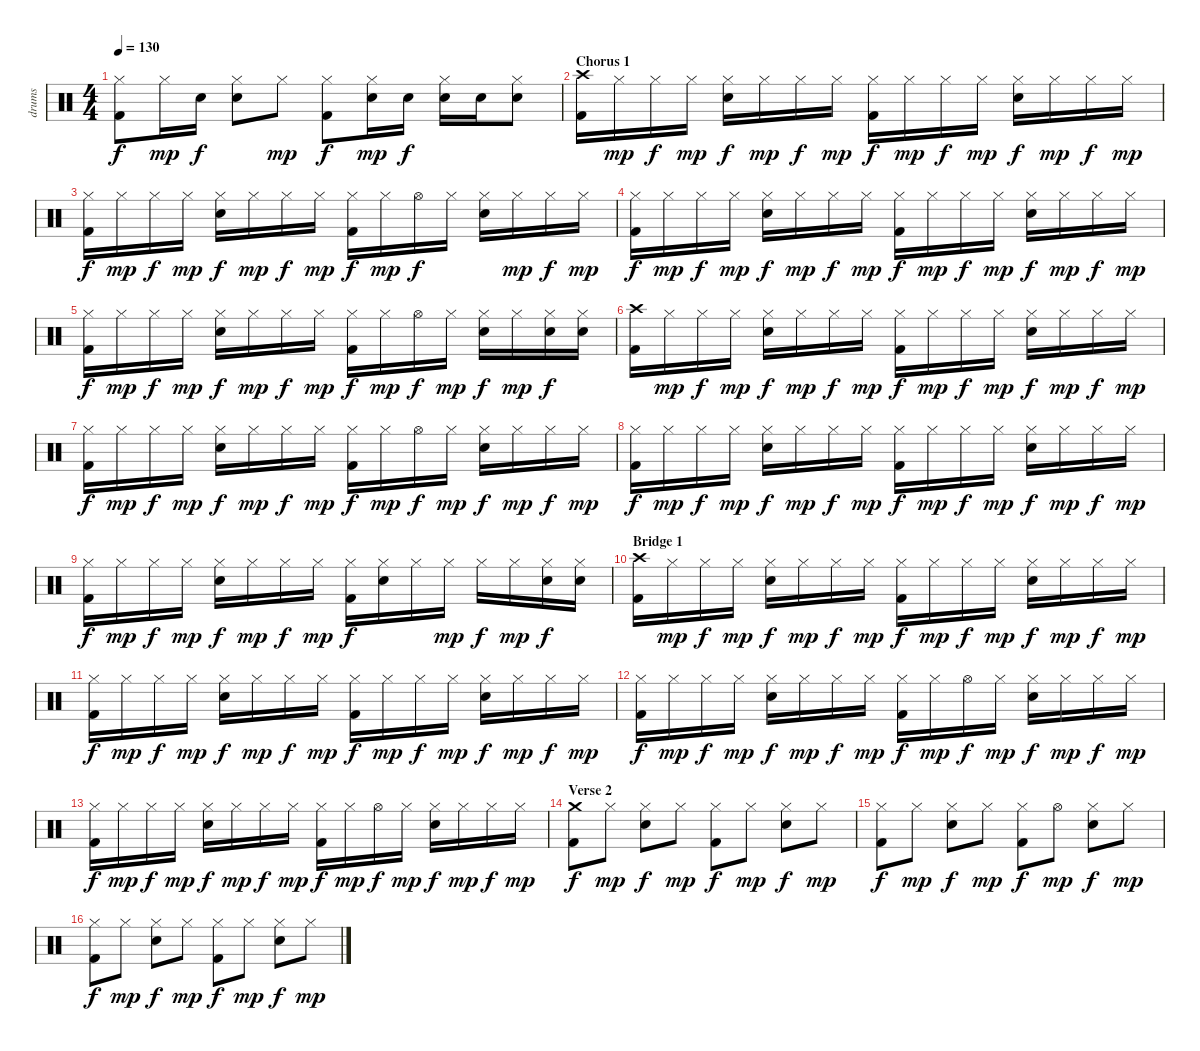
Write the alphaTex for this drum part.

\track ("drums" "drums") {instrument percussion}
\staff {score}
\articulation defaults
\ts (4 4)
\tempo 130
\clef neutral
\ks c
("Hi-Hat (closed)" "Kick (hit) 2").8{dy f} "Hi-Hat (closed)".16{dy mp} "Electric Snare (hit)".16{dy f} ("Hi-Hat (closed)" "Electric Snare (hit)").8 "Hi-Hat (closed)".8{dy mp} ("Hi-Hat (closed)" "Kick (hit) 2").8{dy f} ("Hi-Hat (closed)" "Electric Snare (hit)").16{dy mp} "Electric Snare (hit)".16{dy f} ("Hi-Hat (closed)" "Electric Snare (hit)").16 "Electric Snare (hit)".16 ("Hi-Hat (closed)" "Electric Snare (hit)").8 |
\section ("" "Chorus 1")
("Crash high (hit)" "Kick (hit) 2").16 "Hi-Hat (closed)".16{dy mp} "Hi-Hat (closed)".16{dy f} "Hi-Hat (closed)".16{dy mp} ("Hi-Hat (closed)" "Electric Snare (hit)").16{dy f} "Hi-Hat (closed)".16{dy mp} "Hi-Hat (closed)".16{dy f} "Hi-Hat (closed)".16{dy mp} ("Hi-Hat (closed)" "Kick (hit) 2").16{dy f} "Hi-Hat (closed)".16{dy mp} "Hi-Hat (closed)".16{dy f} "Hi-Hat (closed)".16{dy mp} ("Hi-Hat (closed)" "Electric Snare (hit)").16{dy f} "Hi-Hat (closed)".16{dy mp} "Hi-Hat (closed)".16{dy f} "Hi-Hat (closed)".16{dy mp} |
("Hi-Hat (closed)" "Kick (hit) 2").16{dy f} "Hi-Hat (closed)".16{dy mp} "Hi-Hat (closed)".16{dy f} "Hi-Hat (closed)".16{dy mp} ("Hi-Hat (closed)" "Electric Snare (hit)").16{dy f} "Hi-Hat (closed)".16{dy mp} "Hi-Hat (closed)".16{dy f} "Hi-Hat (closed)".16{dy mp} ("Hi-Hat (closed)" "Kick (hit) 2").16{dy f} "Hi-Hat (closed)".16{dy mp} "Hi-Hat (open)".16{dy f} "Hi-Hat (closed)".16 ("Hi-Hat (closed)" "Electric Snare (hit)").16 "Hi-Hat (closed)".16{dy mp} "Hi-Hat (closed)".16{dy f} "Hi-Hat (closed)".16{dy mp} |
("Hi-Hat (closed)" "Kick (hit) 2").16{dy f} "Hi-Hat (closed)".16{dy mp} "Hi-Hat (closed)".16{dy f} "Hi-Hat (closed)".16{dy mp} ("Hi-Hat (closed)" "Electric Snare (hit)").16{dy f} "Hi-Hat (closed)".16{dy mp} "Hi-Hat (closed)".16{dy f} "Hi-Hat (closed)".16{dy mp} ("Hi-Hat (closed)" "Kick (hit) 2").16{dy f} "Hi-Hat (closed)".16{dy mp} "Hi-Hat (closed)".16{dy f} "Hi-Hat (closed)".16{dy mp} ("Hi-Hat (closed)" "Electric Snare (hit)").16{dy f} "Hi-Hat (closed)".16{dy mp} "Hi-Hat (closed)".16{dy f} "Hi-Hat (closed)".16{dy mp} |
("Hi-Hat (closed)" "Kick (hit) 2").16{dy f} "Hi-Hat (closed)".16{dy mp} "Hi-Hat (closed)".16{dy f} "Hi-Hat (closed)".16{dy mp} ("Hi-Hat (closed)" "Electric Snare (hit)").16{dy f} "Hi-Hat (closed)".16{dy mp} "Hi-Hat (closed)".16{dy f} "Hi-Hat (closed)".16{dy mp} ("Hi-Hat (closed)" "Kick (hit) 2").16{dy f} "Hi-Hat (closed)".16{dy mp} "Hi-Hat (open)".16{dy f} "Hi-Hat (closed)".16{dy mp} ("Hi-Hat (closed)" "Electric Snare (hit)").16{dy f} "Hi-Hat (closed)".16{dy mp} ("Hi-Hat (closed)" "Electric Snare (hit)").16{dy f} ("Hi-Hat (closed)" "Electric Snare (hit)").16 |
("Crash high (hit)" "Kick (hit) 2").16 "Hi-Hat (closed)".16{dy mp} "Hi-Hat (closed)".16{dy f} "Hi-Hat (closed)".16{dy mp} ("Hi-Hat (closed)" "Electric Snare (hit)").16{dy f} "Hi-Hat (closed)".16{dy mp} "Hi-Hat (closed)".16{dy f} "Hi-Hat (closed)".16{dy mp} ("Hi-Hat (closed)" "Kick (hit) 2").16{dy f} "Hi-Hat (closed)".16{dy mp} "Hi-Hat (closed)".16{dy f} "Hi-Hat (closed)".16{dy mp} ("Hi-Hat (closed)" "Electric Snare (hit)").16{dy f} "Hi-Hat (closed)".16{dy mp} "Hi-Hat (closed)".16{dy f} "Hi-Hat (closed)".16{dy mp} |
("Hi-Hat (closed)" "Kick (hit) 2").16{dy f} "Hi-Hat (closed)".16{dy mp} "Hi-Hat (closed)".16{dy f} "Hi-Hat (closed)".16{dy mp} ("Hi-Hat (closed)" "Electric Snare (hit)").16{dy f} "Hi-Hat (closed)".16{dy mp} "Hi-Hat (closed)".16{dy f} "Hi-Hat (closed)".16{dy mp} ("Hi-Hat (closed)" "Kick (hit) 2").16{dy f} "Hi-Hat (closed)".16{dy mp} "Hi-Hat (open)".16{dy f} "Hi-Hat (closed)".16{dy mp} ("Hi-Hat (closed)" "Electric Snare (hit)").16{dy f} "Hi-Hat (closed)".16{dy mp} "Hi-Hat (closed)".16{dy f} "Hi-Hat (closed)".16{dy mp} |
("Hi-Hat (closed)" "Kick (hit) 2").16{dy f} "Hi-Hat (closed)".16{dy mp} "Hi-Hat (closed)".16{dy f} "Hi-Hat (closed)".16{dy mp} ("Hi-Hat (closed)" "Electric Snare (hit)").16{dy f} "Hi-Hat (closed)".16{dy mp} "Hi-Hat (closed)".16{dy f} "Hi-Hat (closed)".16{dy mp} ("Hi-Hat (closed)" "Kick (hit) 2").16{dy f} "Hi-Hat (closed)".16{dy mp} "Hi-Hat (closed)".16{dy f} "Hi-Hat (closed)".16{dy mp} ("Hi-Hat (closed)" "Electric Snare (hit)").16{dy f} "Hi-Hat (closed)".16{dy mp} "Hi-Hat (closed)".16{dy f} "Hi-Hat (closed)".16{dy mp} |
("Hi-Hat (closed)" "Kick (hit) 2").16{dy f} "Hi-Hat (closed)".16{dy mp} "Hi-Hat (closed)".16{dy f} "Hi-Hat (closed)".16{dy mp} ("Hi-Hat (closed)" "Electric Snare (hit)").16{dy f} "Hi-Hat (closed)".16{dy mp} "Hi-Hat (closed)".16{dy f} "Hi-Hat (closed)".16{dy mp} ("Hi-Hat (closed)" "Kick (hit) 2").16{dy f} ("Hi-Hat (closed)" "Electric Snare (hit)").16 "Hi-Hat (closed)".16 "Hi-Hat (closed)".16{dy mp} "Hi-Hat (closed)".16{dy f} "Hi-Hat (closed)".16{dy mp} ("Hi-Hat (closed)" "Electric Snare (hit)").16{dy f} ("Hi-Hat (closed)" "Electric Snare (hit)").16 |
\section ("" "Bridge 1")
("Crash high (hit)" "Kick (hit) 2").16 "Hi-Hat (closed)".16{dy mp} "Hi-Hat (closed)".16{dy f} "Hi-Hat (closed)".16{dy mp} ("Hi-Hat (closed)" "Electric Snare (hit)").16{dy f} "Hi-Hat (closed)".16{dy mp} "Hi-Hat (closed)".16{dy f} "Hi-Hat (closed)".16{dy mp} ("Hi-Hat (closed)" "Kick (hit) 2").16{dy f} "Hi-Hat (closed)".16{dy mp} "Hi-Hat (closed)".16{dy f} "Hi-Hat (closed)".16{dy mp} ("Hi-Hat (closed)" "Electric Snare (hit)").16{dy f} "Hi-Hat (closed)".16{dy mp} "Hi-Hat (closed)".16{dy f} "Hi-Hat (closed)".16{dy mp} |
("Hi-Hat (closed)" "Kick (hit) 2").16{dy f} "Hi-Hat (closed)".16{dy mp} "Hi-Hat (closed)".16{dy f} "Hi-Hat (closed)".16{dy mp} ("Hi-Hat (closed)" "Electric Snare (hit)").16{dy f} "Hi-Hat (closed)".16{dy mp} "Hi-Hat (closed)".16{dy f} "Hi-Hat (closed)".16{dy mp} ("Hi-Hat (closed)" "Kick (hit) 2").16{dy f} "Hi-Hat (closed)".16{dy mp} "Hi-Hat (closed)".16{dy f} "Hi-Hat (closed)".16{dy mp} ("Hi-Hat (closed)" "Electric Snare (hit)").16{dy f} "Hi-Hat (closed)".16{dy mp} "Hi-Hat (closed)".16{dy f} "Hi-Hat (closed)".16{dy mp} |
("Hi-Hat (closed)" "Kick (hit) 2").16{dy f} "Hi-Hat (closed)".16{dy mp} "Hi-Hat (closed)".16{dy f} "Hi-Hat (closed)".16{dy mp} ("Hi-Hat (closed)" "Electric Snare (hit)").16{dy f} "Hi-Hat (closed)".16{dy mp} "Hi-Hat (closed)".16{dy f} "Hi-Hat (closed)".16{dy mp} ("Hi-Hat (closed)" "Kick (hit) 2").16{dy f} "Hi-Hat (closed)".16{dy mp} "Hi-Hat (open)".16{dy f} "Hi-Hat (closed)".16{dy mp} ("Hi-Hat (closed)" "Electric Snare (hit)").16{dy f} "Hi-Hat (closed)".16{dy mp} "Hi-Hat (closed)".16{dy f} "Hi-Hat (closed)".16{dy mp} |
("Hi-Hat (closed)" "Kick (hit) 2").16{dy f} "Hi-Hat (closed)".16{dy mp} "Hi-Hat (closed)".16{dy f} "Hi-Hat (closed)".16{dy mp} ("Hi-Hat (closed)" "Electric Snare (hit)").16{dy f} "Hi-Hat (closed)".16{dy mp} "Hi-Hat (closed)".16{dy f} "Hi-Hat (closed)".16{dy mp} ("Hi-Hat (closed)" "Kick (hit) 2").16{dy f} "Hi-Hat (closed)".16{dy mp} "Hi-Hat (open)".16{dy f} "Hi-Hat (closed)".16{dy mp} ("Hi-Hat (closed)" "Electric Snare (hit)").16{dy f} "Hi-Hat (closed)".16{dy mp} "Hi-Hat (closed)".16{dy f} "Hi-Hat (closed)".16{dy mp} |
\section ("" "Verse 2")
("Crash medium (hit)" "Kick (hit) 2").8{dy f} "Hi-Hat (closed)".8{dy mp} ("Hi-Hat (closed)" "Electric Snare (hit)").8{dy f} "Hi-Hat (closed)".8{dy mp} ("Hi-Hat (closed)" "Kick (hit) 2").8{dy f} "Hi-Hat (closed)".8{dy mp} ("Hi-Hat (closed)" "Electric Snare (hit)").8{dy f} "Hi-Hat (closed)".8{dy mp} |
("Hi-Hat (closed)" "Kick (hit) 2").8{dy f} "Hi-Hat (closed)".8{dy mp} ("Hi-Hat (closed)" "Electric Snare (hit)").8{dy f} "Hi-Hat (closed)".8{dy mp} ("Hi-Hat (closed)" "Kick (hit) 2").8{dy f} "Hi-Hat (open)".8{dy mp} ("Hi-Hat (closed)" "Electric Snare (hit)").8{dy f} "Hi-Hat (closed)".8{dy mp} |
("Hi-Hat (closed)" "Kick (hit) 2").8{dy f} "Hi-Hat (closed)".8{dy mp} ("Hi-Hat (closed)" "Electric Snare (hit)").8{dy f} "Hi-Hat (closed)".8{dy mp} ("Hi-Hat (closed)" "Kick (hit) 2").8{dy f} "Hi-Hat (closed)".8{dy mp} ("Hi-Hat (closed)" "Electric Snare (hit)").8{dy f} "Hi-Hat (closed)".8{dy mp}
